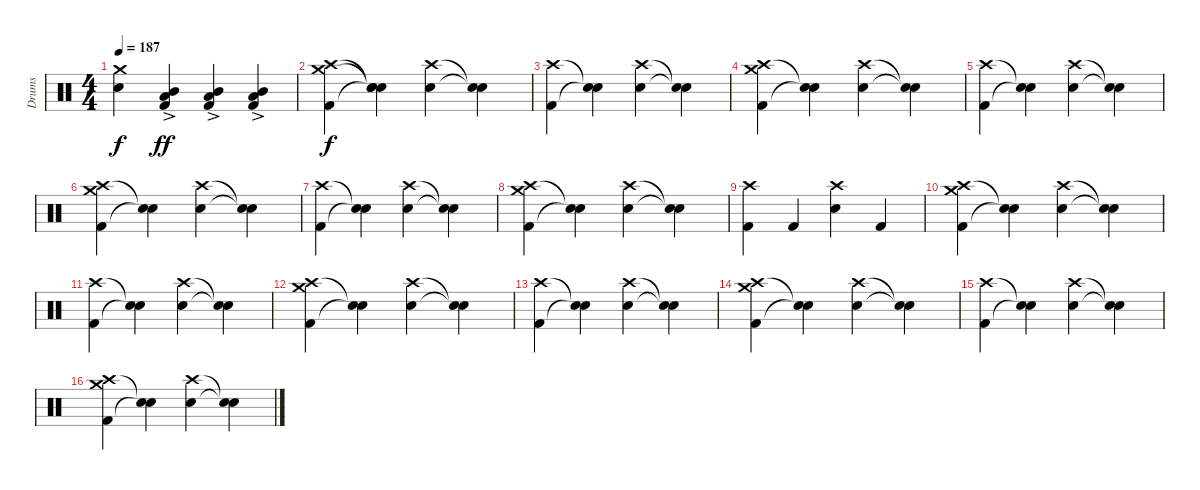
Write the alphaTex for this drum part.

\track ("Drums" "Drums") {instrument percussion}
\staff {score}
\articulation defaults
\ts (4 4)
\tempo 187
\clef neutral
\ks c
("Snare (hit) 2" "Crash medium (hit)").4{dy f} ("Kick (hit) 2" "Low Tom (hit)"{ac} "Mid Tom (hit)"{ac}).4{dy ff} ("Kick (hit) 2" "Mid Tom (hit)"{ac} "Low Tom (hit)"{ac}).4 ("Low Tom (hit)"{ac} "Mid Tom (hit)"{ac} "Kick (hit) 2").4 |
("Crash medium (hit)" "Crash high (hit)" "Kick (hit) 2").4{dy f} ("Snare (hit)"{t} "Snare (hit)"{t} "Snare (hit)"{t}).4 ("Crash high (hit)" "Snare (hit) 2").4 ("Snare (hit)"{t} "Snare (hit)"{t}).4 |
("Crash high (hit)" "Kick (hit) 2").4 ("Snare (hit)"{t} "Snare (hit)"{t}).4 ("Crash high (hit)" "Snare (hit) 2").4 ("Snare (hit)"{t} "Snare (hit)"{t}).4 |
("Crash high (hit)" "Kick (hit) 2" "Crash medium (hit)").4 ("Snare (hit)"{t} "Snare (hit)"{t}).4 ("Crash high (hit)" "Snare (hit) 2").4 ("Snare (hit)"{t} "Snare (hit)"{t}).4 |
("Crash high (hit)" "Kick (hit) 2").4 ("Snare (hit)"{t} "Snare (hit)"{t}).4 ("Crash high (hit)" "Snare (hit) 2").4 ("Snare (hit)"{t} "Snare (hit)"{t}).4 |
("Crash high (hit)" "Kick (hit) 2" "Crash medium (hit)").4 ("Snare (hit)"{t} "Snare (hit)"{t}).4 ("Crash high (hit)" "Snare (hit) 2").4 ("Snare (hit)"{t} "Snare (hit)"{t}).4 |
("Crash high (hit)" "Kick (hit) 2").4 ("Snare (hit)"{t} "Snare (hit)"{t}).4 ("Crash high (hit)" "Snare (hit) 2").4 ("Snare (hit)"{t} "Snare (hit)"{t}).4 |
("Crash high (hit)" "Kick (hit) 2" "Crash medium (hit)").4 ("Snare (hit)"{t} "Snare (hit)"{t}).4 ("Crash high (hit)" "Snare (hit) 2").4 ("Snare (hit)"{t} "Snare (hit)"{t}).4 |
("Crash high (hit)" "Kick (hit) 2").4 "Kick (hit) 2".4 ("Snare (hit) 2" "Crash high (hit)").4 "Kick (hit) 2".4 |
("Crash high (hit)" "Kick (hit) 2" "Crash medium (hit)").4 ("Snare (hit)"{t} "Snare (hit)"{t}).4 ("Crash high (hit)" "Snare (hit) 2").4 ("Snare (hit)"{t} "Snare (hit)"{t}).4 |
("Crash high (hit)" "Kick (hit) 2").4 ("Snare (hit)"{t} "Snare (hit)"{t}).4 ("Crash high (hit)" "Snare (hit) 2").4 ("Snare (hit)"{t} "Snare (hit)"{t}).4 |
("Crash high (hit)" "Kick (hit) 2" "Crash medium (hit)").4 ("Snare (hit)"{t} "Snare (hit)"{t}).4 ("Crash high (hit)" "Snare (hit) 2").4 ("Snare (hit)"{t} "Snare (hit)"{t}).4 |
("Crash high (hit)" "Kick (hit) 2").4 ("Snare (hit)"{t} "Snare (hit)"{t}).4 ("Crash high (hit)" "Snare (hit) 2").4 ("Snare (hit)"{t} "Snare (hit)"{t}).4 |
("Crash high (hit)" "Kick (hit) 2" "Crash medium (hit)").4 ("Snare (hit)"{t} "Snare (hit)"{t}).4 ("Crash high (hit)" "Snare (hit) 2").4 ("Snare (hit)"{t} "Snare (hit)"{t}).4 |
("Crash high (hit)" "Kick (hit) 2").4 ("Snare (hit)"{t} "Snare (hit)"{t}).4 ("Crash high (hit)" "Snare (hit) 2").4 ("Snare (hit)"{t} "Snare (hit)"{t}).4 |
("Crash high (hit)" "Kick (hit) 2" "Crash medium (hit)").4 ("Snare (hit)"{t} "Snare (hit)"{t}).4 ("Crash high (hit)" "Snare (hit) 2").4 ("Snare (hit)"{t} "Snare (hit)"{t}).4
